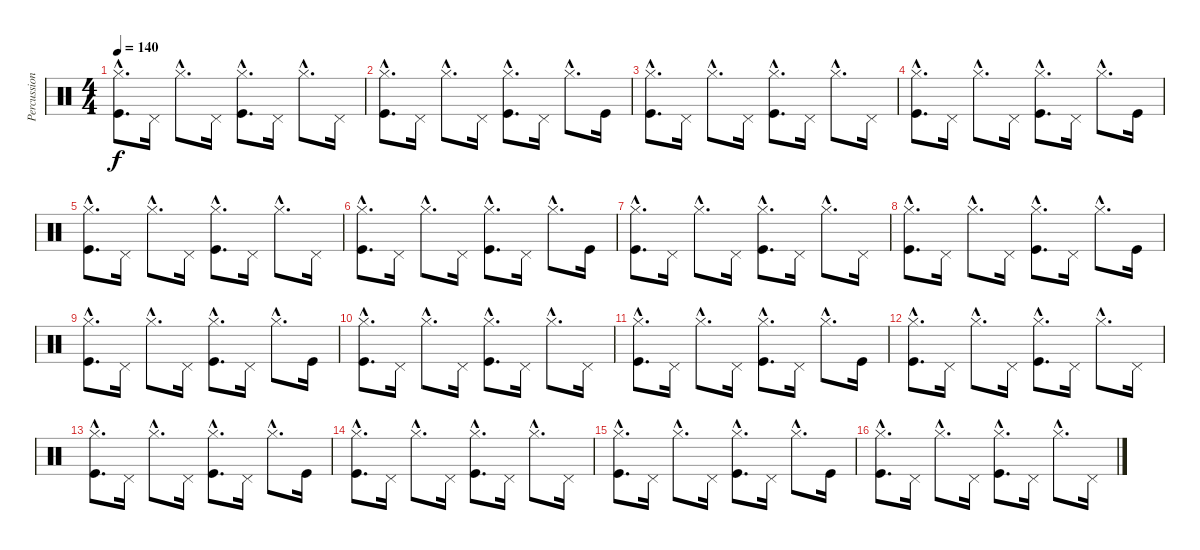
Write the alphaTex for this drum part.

\track ("Percussions" "Percussion") {instrument percussion}
\staff {score}
\articulation defaults
\ts (4 4)
\tempo 140
\clef neutral
\ks c
("Hi-Hat (closed)"{hac} "Kick (hit)"{hac}).8{d dy f} "Pedal Hi-Hat (hit)".16 "Hi-Hat (closed)"{hac}.8{d} "Pedal Hi-Hat (hit)".16 ("Hi-Hat (closed)"{hac} "Kick (hit)"{hac}).8{d} "Pedal Hi-Hat (hit)".16 "Hi-Hat (closed)"{hac}.8{d} "Pedal Hi-Hat (hit)".16 |
("Hi-Hat (closed)"{hac} "Kick (hit)"{hac}).8{d} "Pedal Hi-Hat (hit)".16 "Hi-Hat (closed)"{hac}.8{d} "Pedal Hi-Hat (hit)".16 ("Hi-Hat (closed)"{hac} "Kick (hit)"{hac}).8{d} "Pedal Hi-Hat (hit)".16 "Hi-Hat (closed)"{hac}.8{d} "Kick (hit)".16 |
("Hi-Hat (closed)"{hac} "Kick (hit)"{hac}).8{d} "Pedal Hi-Hat (hit)".16 "Hi-Hat (closed)"{hac}.8{d} "Pedal Hi-Hat (hit)".16 ("Hi-Hat (closed)"{hac} "Kick (hit)"{hac}).8{d} "Pedal Hi-Hat (hit)".16 "Hi-Hat (closed)"{hac}.8{d} "Pedal Hi-Hat (hit)".16 |
("Hi-Hat (closed)"{hac} "Kick (hit)"{hac}).8{d} "Pedal Hi-Hat (hit)".16 "Hi-Hat (closed)"{hac}.8{d} "Pedal Hi-Hat (hit)".16 ("Hi-Hat (closed)"{hac} "Kick (hit)"{hac}).8{d} "Pedal Hi-Hat (hit)".16 "Hi-Hat (closed)"{hac}.8{d} "Kick (hit)".16 |
("Hi-Hat (closed)"{hac} "Kick (hit)"{hac}).8{d} "Pedal Hi-Hat (hit)".16 "Hi-Hat (closed)"{hac}.8{d} "Pedal Hi-Hat (hit)".16 ("Hi-Hat (closed)"{hac} "Kick (hit)"{hac}).8{d} "Pedal Hi-Hat (hit)".16 "Hi-Hat (closed)"{hac}.8{d} "Pedal Hi-Hat (hit)".16 |
("Hi-Hat (closed)"{hac} "Kick (hit)"{hac}).8{d} "Pedal Hi-Hat (hit)".16 "Hi-Hat (closed)"{hac}.8{d} "Pedal Hi-Hat (hit)".16 ("Hi-Hat (closed)"{hac} "Kick (hit)"{hac}).8{d} "Pedal Hi-Hat (hit)".16 "Hi-Hat (closed)"{hac}.8{d} "Kick (hit)".16 |
("Hi-Hat (closed)"{hac} "Kick (hit)"{hac}).8{d} "Pedal Hi-Hat (hit)".16 "Hi-Hat (closed)"{hac}.8{d} "Pedal Hi-Hat (hit)".16 ("Hi-Hat (closed)"{hac} "Kick (hit)"{hac}).8{d} "Pedal Hi-Hat (hit)".16 "Hi-Hat (closed)"{hac}.8{d} "Pedal Hi-Hat (hit)".16 |
("Hi-Hat (closed)"{hac} "Kick (hit)"{hac}).8{d} "Pedal Hi-Hat (hit)".16 "Hi-Hat (closed)"{hac}.8{d} "Pedal Hi-Hat (hit)".16 ("Hi-Hat (closed)"{hac} "Kick (hit)"{hac}).8{d} "Pedal Hi-Hat (hit)".16 "Hi-Hat (closed)"{hac}.8{d} "Kick (hit)".16 |
("Hi-Hat (closed)"{hac} "Kick (hit)"{hac}).8{d} "Pedal Hi-Hat (hit)".16 "Hi-Hat (closed)"{hac}.8{d} "Pedal Hi-Hat (hit)".16 ("Hi-Hat (closed)"{hac} "Kick (hit)"{hac}).8{d} "Pedal Hi-Hat (hit)".16 "Hi-Hat (closed)"{hac}.8{d} "Kick (hit)".16 |
("Hi-Hat (closed)"{hac} "Kick (hit)"{hac}).8{d} "Pedal Hi-Hat (hit)".16 "Hi-Hat (closed)"{hac}.8{d} "Pedal Hi-Hat (hit)".16 ("Hi-Hat (closed)"{hac} "Kick (hit)"{hac}).8{d} "Pedal Hi-Hat (hit)".16 "Hi-Hat (closed)"{hac}.8{d} "Pedal Hi-Hat (hit)".16 |
("Hi-Hat (closed)"{hac} "Kick (hit)"{hac}).8{d} "Pedal Hi-Hat (hit)".16 "Hi-Hat (closed)"{hac}.8{d} "Pedal Hi-Hat (hit)".16 ("Hi-Hat (closed)"{hac} "Kick (hit)"{hac}).8{d} "Pedal Hi-Hat (hit)".16 "Hi-Hat (closed)"{hac}.8{d} "Kick (hit)".16 |
("Hi-Hat (closed)"{hac} "Kick (hit)"{hac}).8{d} "Pedal Hi-Hat (hit)".16 "Hi-Hat (closed)"{hac}.8{d} "Pedal Hi-Hat (hit)".16 ("Hi-Hat (closed)"{hac} "Kick (hit)"{hac}).8{d} "Pedal Hi-Hat (hit)".16 "Hi-Hat (closed)"{hac}.8{d} "Pedal Hi-Hat (hit)".16 |
("Hi-Hat (closed)"{hac} "Kick (hit)"{hac}).8{d} "Pedal Hi-Hat (hit)".16 "Hi-Hat (closed)"{hac}.8{d} "Pedal Hi-Hat (hit)".16 ("Hi-Hat (closed)"{hac} "Kick (hit)"{hac}).8{d} "Pedal Hi-Hat (hit)".16 "Hi-Hat (closed)"{hac}.8{d} "Kick (hit)".16 |
("Hi-Hat (closed)"{hac} "Kick (hit)"{hac}).8{d} "Pedal Hi-Hat (hit)".16 "Hi-Hat (closed)"{hac}.8{d} "Pedal Hi-Hat (hit)".16 ("Hi-Hat (closed)"{hac} "Kick (hit)"{hac}).8{d} "Pedal Hi-Hat (hit)".16 "Hi-Hat (closed)"{hac}.8{d} "Pedal Hi-Hat (hit)".16 |
("Hi-Hat (closed)"{hac} "Kick (hit)"{hac}).8{d} "Pedal Hi-Hat (hit)".16 "Hi-Hat (closed)"{hac}.8{d} "Pedal Hi-Hat (hit)".16 ("Hi-Hat (closed)"{hac} "Kick (hit)"{hac}).8{d} "Pedal Hi-Hat (hit)".16 "Hi-Hat (closed)"{hac}.8{d} "Kick (hit)".16 |
("Hi-Hat (closed)"{hac} "Kick (hit)"{hac}).8{d} "Pedal Hi-Hat (hit)".16 "Hi-Hat (closed)"{hac}.8{d} "Pedal Hi-Hat (hit)".16 ("Hi-Hat (closed)"{hac} "Kick (hit)"{hac}).8{d} "Pedal Hi-Hat (hit)".16 "Hi-Hat (closed)"{hac}.8{d} "Pedal Hi-Hat (hit)".16
